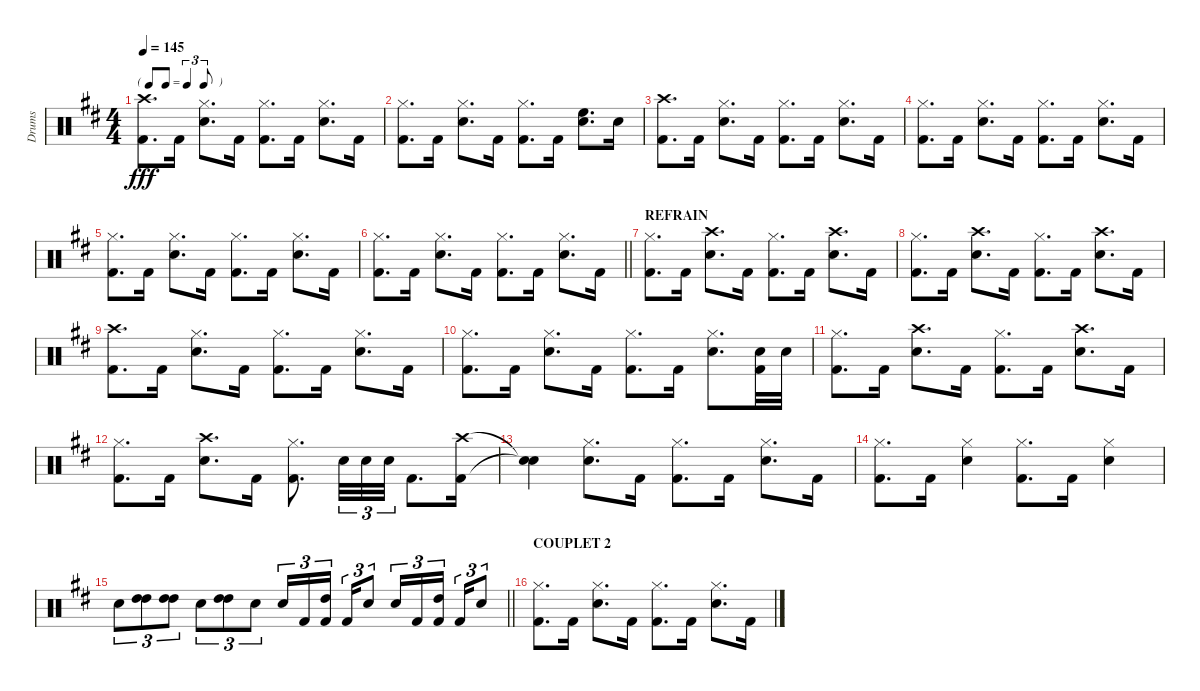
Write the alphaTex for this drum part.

\track ("Drums" "Drums") {instrument percussion}
\staff {score}
\articulation defaults
\ts (4 4)
\tf triplet8th
\tempo 145
\clef neutral
\ks d
("Crash high (hit)" "Kick (hit) 2").8{d dy fff} "Kick (hit) 2".16 ("Hi-Hat (closed)" "Snare (hit) 2").8{d} "Kick (hit) 2".16 ("Hi-Hat (closed)" "Kick (hit) 2").8{d} "Kick (hit) 2".16 ("Hi-Hat (closed)" "Snare (hit) 2").8{d} "Kick (hit) 2".16 |
("Hi-Hat (closed)" "Kick (hit) 2").8{d} "Kick (hit) 2".16 ("Hi-Hat (closed)" "Snare (hit) 2").8{d} "Kick (hit) 2".16 ("Hi-Hat (closed)" "Kick (hit) 2").8{d} "Kick (hit) 2".16 ("High Floor Tom (hit)" "Snare (hit) 2").8{d} "Snare (hit) 2".16 |
("Crash high (hit)" "Kick (hit) 2").8{d} "Kick (hit) 2".16 ("Hi-Hat (closed)" "Snare (hit) 2").8{d} "Kick (hit) 2".16 ("Hi-Hat (closed)" "Kick (hit) 2").8{d} "Kick (hit) 2".16 ("Hi-Hat (closed)" "Snare (hit) 2").8{d} "Kick (hit) 2".16 |
("Hi-Hat (closed)" "Kick (hit) 2").8{d} "Kick (hit) 2".16 ("Hi-Hat (closed)" "Snare (hit) 2").8{d} "Kick (hit) 2".16 ("Hi-Hat (closed)" "Kick (hit) 2").8{d} "Kick (hit) 2".16 ("Hi-Hat (closed)" "Snare (hit) 2").8{d} "Kick (hit) 2".16 |
("Hi-Hat (closed)" "Kick (hit) 2").8{d} "Kick (hit) 2".16 ("Hi-Hat (closed)" "Snare (hit) 2").8{d} "Kick (hit) 2".16 ("Hi-Hat (closed)" "Kick (hit) 2").8{d} "Kick (hit) 2".16 ("Hi-Hat (closed)" "Snare (hit) 2").8{d} "Kick (hit) 2".16 |
\barLineRight lightlight
("Hi-Hat (closed)" "Kick (hit) 2").8{d} "Kick (hit) 2".16 ("Hi-Hat (closed)" "Snare (hit) 2").8{d} "Kick (hit) 2".16 ("Hi-Hat (closed)" "Kick (hit) 2").8{d} "Kick (hit) 2".16 ("Hi-Hat (closed)" "Snare (hit) 2").8{d} "Kick (hit) 2".16 |
\section ("" "REFRAIN")
("Hi-Hat (closed)" "Kick (hit) 2").8{d} "Kick (hit) 2".16 ("Crash high (hit)" "Snare (hit) 2").8{d} "Kick (hit) 2".16 ("Hi-Hat (closed)" "Kick (hit) 2").8{d} "Kick (hit) 2".16 ("Crash high (hit)" "Snare (hit) 2").8{d} "Kick (hit) 2".16 |
("Hi-Hat (closed)" "Kick (hit) 2").8{d} "Kick (hit) 2".16 ("Crash high (hit)" "Snare (hit) 2").8{d} "Kick (hit) 2".16 ("Hi-Hat (closed)" "Kick (hit) 2").8{d} "Kick (hit) 2".16 ("Crash high (hit)" "Snare (hit) 2").8{d} "Kick (hit) 2".16 |
("Crash high (hit)" "Kick (hit) 2").8{d} "Kick (hit) 2".16 ("Hi-Hat (closed)" "Snare (hit) 2").8{d} "Kick (hit) 2".16 ("Hi-Hat (closed)" "Kick (hit) 2").8{d} "Kick (hit) 2".16 ("Hi-Hat (closed)" "Snare (hit) 2").8{d} "Kick (hit) 2".16 |
("Hi-Hat (closed)" "Kick (hit) 2").8{d} "Kick (hit) 2".16 ("Hi-Hat (closed)" "Snare (hit) 2").8{d} "Kick (hit) 2".16 ("Hi-Hat (closed)" "Kick (hit) 2").8{d} "Kick (hit) 2".16 ("Hi-Hat (closed)" "Snare (hit) 2").8{d} ("Snare (hit) 2" "Kick (hit) 2").32 "Snare (hit) 2".32 |
("Hi-Hat (closed)" "Kick (hit) 2").8{d} "Kick (hit) 2".16 ("Crash high (hit)" "Snare (hit) 2").8{d} "Kick (hit) 2".16 ("Hi-Hat (closed)" "Kick (hit) 2").8{d} "Kick (hit) 2".16 ("Crash high (hit)" "Snare (hit) 2").8{d} "Kick (hit) 2".16 |
("Hi-Hat (closed)" "Kick (hit) 2").8{d} "Kick (hit) 2".16 ("Crash high (hit)" "Snare (hit) 2").8{d} "Kick (hit) 2".16 ("Hi-Hat (closed)" "Kick (hit) 2").8{d} "Snare (hit) 2".32{tu (3 2)} "Snare (hit) 2".32{tu (3 2)} "Snare (hit) 2".32{tu (3 2)} "Kick (hit) 2".8{d} ("Crash high (hit)" "Kick (hit) 2").16 |
("Snare (hit)"{t} "Snare (hit)"{t}).4 ("Hi-Hat (closed)" "Snare (hit) 2").8{d} "Kick (hit) 2".16 ("Hi-Hat (closed)" "Kick (hit) 2").8{d} "Kick (hit) 2".16 ("Hi-Hat (closed)" "Snare (hit) 2").8{d} "Kick (hit) 2".16 |
("Hi-Hat (closed)" "Kick (hit) 2").8{d} "Kick (hit) 2".16 ("Hi-Hat (closed)" "Snare (hit) 2").4 ("Hi-Hat (closed)" "Kick (hit) 2").8{d} "Kick (hit) 2".16 ("Hi-Hat (closed)" "Snare (hit) 2").4 |
\barLineRight lightlight "Snare (hit) 2".8{tu (3 2)}
("High Tom (hit)" "High Tom (hit)").8{tu (3 2)} ("High Tom (hit)" "High Tom (hit)").8{tu (3 2)} "Snare (hit) 2".8{tu (3 2)} ("High Tom (hit)" "High Tom (hit)").8{tu (3 2)} "Snare (hit) 2".8{tu (3 2)} "Snare (hit) 2".16{tu (3 2)} "Kick (hit) 2".16{tu (3 2)} ("High Tom (hit)" "Kick (hit) 2").16{tu (3 2) beam splitsecondary} "Kick (hit) 2".16{tu (3 2)} "Snare (hit) 2".8{tu (3 2)} "Snare (hit) 2".16{tu (3 2)} "Kick (hit) 2".16{tu (3 2)} ("High Tom (hit)" "Kick (hit) 2").16{tu (3 2) beam splitsecondary} "Kick (hit) 2".16{tu (3 2)} "Snare (hit) 2".8{tu (3 2)} |
\section ("" "COUPLET 2")
("Hi-Hat (closed)" "Kick (hit) 2").8{d} "Kick (hit) 2".16 ("Hi-Hat (closed)" "Snare (hit) 2").8{d} "Kick (hit) 2".16 ("Hi-Hat (closed)" "Kick (hit) 2").8{d} "Kick (hit) 2".16 ("Hi-Hat (closed)" "Snare (hit) 2").8{d} "Kick (hit) 2".16
